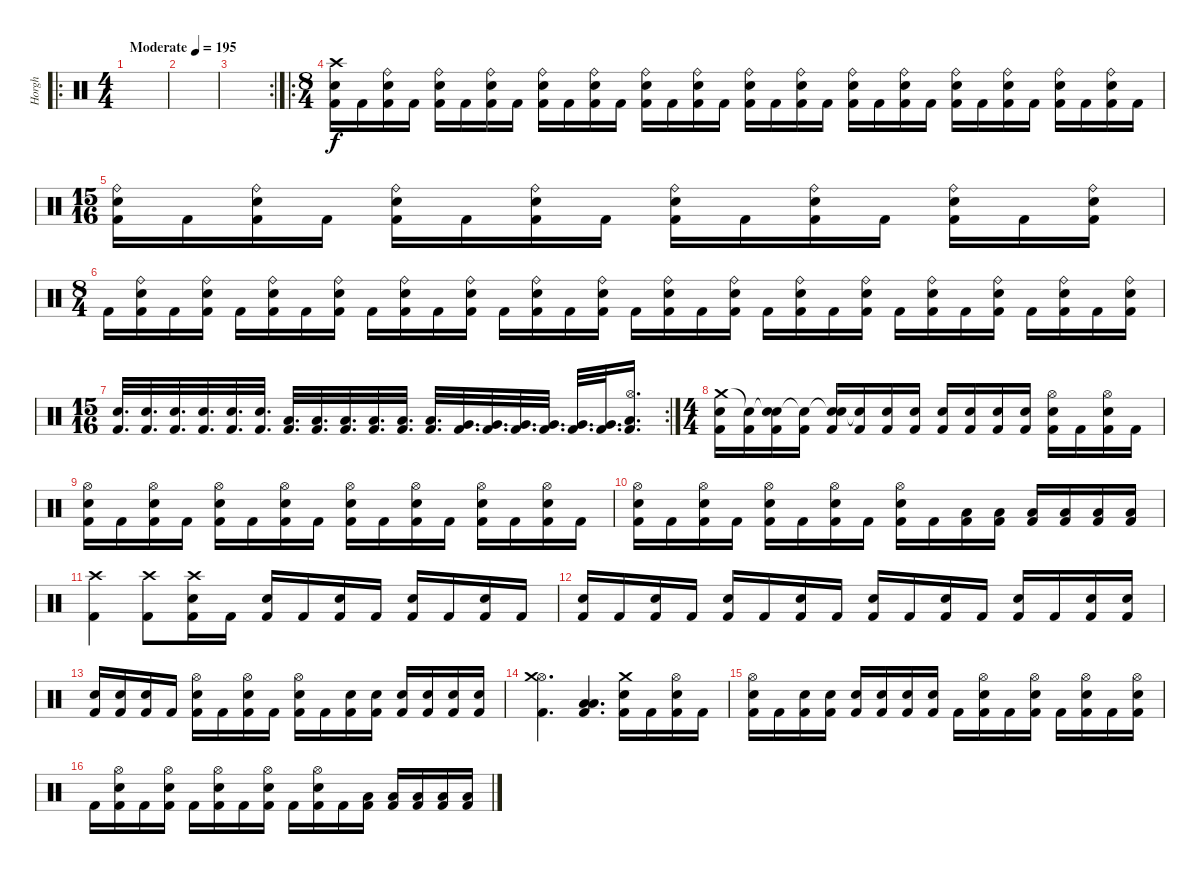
\track ("Horgh" "Horgh") {instrument percussion}
\staff {score}
\articulation defaults
\ro
\ts (4 4)
\tempo (195 "Moderate")
\clef neutral
\ks c
|
|
\rc 2
|
\ro
\ts (8 4)
("Crash high (hit)" "Electric Snare (hit)" "Kick (hit) 2").16 "Kick (hit) 2".16 ("Ride (bell)" "Electric Snare (hit)" "Kick (hit) 2").16 "Kick (hit) 2".16 ("Ride (bell)" "Electric Snare (hit)" "Kick (hit) 2").16 "Kick (hit) 2".16 ("Ride (bell)" "Electric Snare (hit)" "Kick (hit) 2").16 "Kick (hit) 2".16 ("Ride (bell)" "Electric Snare (hit)" "Kick (hit) 2").16 "Kick (hit) 2".16 ("Ride (bell)" "Electric Snare (hit)" "Kick (hit) 2").16 "Kick (hit) 2".16 ("Ride (bell)" "Electric Snare (hit)" "Kick (hit) 2").16 "Kick (hit) 2".16 ("Ride (bell)" "Electric Snare (hit)" "Kick (hit) 2").16 "Kick (hit) 2".16 ("Ride (bell)" "Electric Snare (hit)" "Kick (hit) 2").16 "Kick (hit) 2".16 ("Ride (bell)" "Electric Snare (hit)" "Kick (hit) 2").16 "Kick (hit) 2".16 ("Ride (bell)" "Electric Snare (hit)" "Kick (hit) 2").16 "Kick (hit) 2".16 ("Ride (bell)" "Electric Snare (hit)" "Kick (hit) 2").16 "Kick (hit) 2".16 ("Ride (bell)" "Electric Snare (hit)" "Kick (hit) 2").16 "Kick (hit) 2".16 ("Ride (bell)" "Electric Snare (hit)" "Kick (hit) 2").16 "Kick (hit) 2".16 ("Ride (bell)" "Electric Snare (hit)" "Kick (hit) 2").16 "Kick (hit) 2".16 ("Ride (bell)" "Electric Snare (hit)" "Kick (hit) 2").16 "Kick (hit) 2".16 |
\ts (15 16)
("Ride (bell)" "Electric Snare (hit)" "Kick (hit) 2").16 "Kick (hit) 2".16 ("Ride (bell)" "Electric Snare (hit)" "Kick (hit) 2").16 "Kick (hit) 2".16 ("Ride (bell)" "Electric Snare (hit)" "Kick (hit) 2").16 "Kick (hit) 2".16 ("Ride (bell)" "Electric Snare (hit)" "Kick (hit) 2").16 "Kick (hit) 2".16 ("Ride (bell)" "Electric Snare (hit)" "Kick (hit) 2").16 "Kick (hit) 2".16 ("Ride (bell)" "Electric Snare (hit)" "Kick (hit) 2").16 "Kick (hit) 2".16 ("Ride (bell)" "Electric Snare (hit)" "Kick (hit) 2").16 "Kick (hit) 2".16 ("Ride (bell)" "Electric Snare (hit)" "Kick (hit) 2").16 |
\ts (8 4)
"Kick (hit) 2".16 ("Ride (bell)" "Electric Snare (hit)" "Kick (hit) 2").16 "Kick (hit) 2".16 ("Ride (bell)" "Electric Snare (hit)" "Kick (hit) 2").16 "Kick (hit) 2".16 ("Ride (bell)" "Electric Snare (hit)" "Kick (hit) 2").16 "Kick (hit) 2".16 ("Ride (bell)" "Electric Snare (hit)" "Kick (hit) 2").16 "Kick (hit) 2".16 ("Ride (bell)" "Electric Snare (hit)" "Kick (hit) 2").16 "Kick (hit) 2".16 ("Ride (bell)" "Electric Snare (hit)" "Kick (hit) 2").16 "Kick (hit) 2".16 ("Ride (bell)" "Electric Snare (hit)" "Kick (hit) 2").16 "Kick (hit) 2".16 ("Ride (bell)" "Electric Snare (hit)" "Kick (hit) 2").16 "Kick (hit) 2".16 ("Ride (bell)" "Electric Snare (hit)" "Kick (hit) 2").16 "Kick (hit) 2".16 ("Ride (bell)" "Electric Snare (hit)" "Kick (hit) 2").16 "Kick (hit) 2".16 ("Ride (bell)" "Electric Snare (hit)" "Kick (hit) 2").16 "Kick (hit) 2".16 ("Ride (bell)" "Electric Snare (hit)" "Kick (hit) 2").16 "Kick (hit) 2".16 ("Ride (bell)" "Electric Snare (hit)" "Kick (hit) 2").16 "Kick (hit) 2".16 ("Ride (bell)" "Electric Snare (hit)" "Kick (hit) 2").16 "Kick (hit) 2".16 ("Ride (bell)" "Electric Snare (hit)" "Kick (hit) 2").16 "Kick (hit) 2".16 ("Ride (bell)" "Electric Snare (hit)" "Kick (hit) 2").16 |
\rc 2
\ts (15 16)
("Electric Snare (hit)" "Kick (hit) 2").32{d} ("Electric Snare (hit)" "Kick (hit) 2").32{d} ("Electric Snare (hit)" "Kick (hit) 2").32{d} ("Electric Snare (hit)" "Kick (hit) 2").32{d} ("Electric Snare (hit)" "Kick (hit) 2").32{d} ("Electric Snare (hit)" "Kick (hit) 2").32{d} ("Low Floor Tom (hit)" "Kick (hit) 2").32{d} ("Low Floor Tom (hit)" "Kick (hit) 2").32{d} ("Low Floor Tom (hit)" "Kick (hit) 2").32{d} ("Low Floor Tom (hit)" "Kick (hit) 2").32{d} ("Low Floor Tom (hit)" "Kick (hit) 2").32{d} ("Low Floor Tom (hit)" "Kick (hit) 2").32{d} ("Very Low Tom (hit)" "Kick (hit) 2").32{d} ("Very Low Tom (hit)" "Kick (hit) 2").32{d} ("Very Low Tom (hit)" "Kick (hit) 2").32{d} ("Very Low Tom (hit)" "Kick (hit) 2").32{d} ("Very Low Tom (hit)" "Kick (hit) 2").32{d} ("Very Low Tom (hit)" "Kick (hit) 2").32{d} ("Hi-Hat (open)" "Low Tom (hit)" "Kick (hit) 2").16{d} |
\ts (4 4)
("Crash medium (hit)" "Electric Snare (hit)" "Kick (hit) 2").16 ("Snare (hit)"{t} "Kick (hit) 2").16 ("Snare (hit)"{t} "Electric Snare (hit)" "Kick (hit) 2").16 ("Snare (hit)"{t} "Kick (hit) 2").16 ("Snare (hit)"{t} "Electric Snare (hit)" "Kick (hit) 2").16 ("Snare (hit)"{t} "Kick (hit) 2").16 ("Electric Snare (hit)" "Kick (hit) 2").16 ("Electric Snare (hit)" "Kick (hit) 2").16 ("Electric Snare (hit)" "Kick (hit) 2").16 ("Electric Snare (hit)" "Kick (hit) 2").16 ("Electric Snare (hit)" "Kick (hit) 2").16 ("Electric Snare (hit)" "Kick (hit) 2").16 ("Hi-Hat (open)" "Electric Snare (hit)" "Kick (hit) 2").16 "Kick (hit) 2".16 ("Hi-Hat (open)" "Electric Snare (hit)" "Kick (hit) 2").16 "Kick (hit) 2".16 |
("Hi-Hat (open)" "Electric Snare (hit)" "Kick (hit) 2").16 "Kick (hit) 2".16 ("Hi-Hat (open)" "Electric Snare (hit)" "Kick (hit) 2").16 "Kick (hit) 2".16 ("Hi-Hat (open)" "Electric Snare (hit)" "Kick (hit) 2").16 "Kick (hit) 2".16 ("Hi-Hat (open)" "Electric Snare (hit)" "Kick (hit) 2").16 "Kick (hit) 2".16 ("Hi-Hat (open)" "Electric Snare (hit)" "Kick (hit) 2").16 "Kick (hit) 2".16 ("Hi-Hat (open)" "Electric Snare (hit)" "Kick (hit) 2").16 "Kick (hit) 2".16 ("Hi-Hat (open)" "Electric Snare (hit)" "Kick (hit) 2").16 "Kick (hit) 2".16 ("Hi-Hat (open)" "Electric Snare (hit)" "Kick (hit) 2").16 "Kick (hit) 2".16 |
("Hi-Hat (open)" "Electric Snare (hit)" "Kick (hit) 2").16 "Kick (hit) 2".16 ("Hi-Hat (open)" "Electric Snare (hit)" "Kick (hit) 2").16 "Kick (hit) 2".16 ("Hi-Hat (open)" "Electric Snare (hit)" "Kick (hit) 2").16 "Kick (hit) 2".16 ("Hi-Hat (open)" "Electric Snare (hit)" "Kick (hit) 2").16 "Kick (hit) 2".16 ("Hi-Hat (open)" "Electric Snare (hit)" "Kick (hit) 2").16 "Kick (hit) 2".16 ("Low Floor Tom (hit)" "Kick (hit) 2").16 ("Low Floor Tom (hit)" "Kick (hit) 2").16 ("Low Floor Tom (hit)" "Kick (hit) 2").16 ("Low Floor Tom (hit)" "Kick (hit) 2").16 ("Low Floor Tom (hit)" "Kick (hit) 2").16 ("Low Floor Tom (hit)" "Kick (hit) 2").16 |
("Crash high (hit)" "Kick (hit) 2").4 ("Crash high (hit)" "Kick (hit) 2").8 ("Crash high (hit)" "Electric Snare (hit)" "Kick (hit) 2").16 "Kick (hit) 2".16 ("Electric Snare (hit)" "Kick (hit) 2").16 "Kick (hit) 2".16 ("Electric Snare (hit)" "Kick (hit) 2").16 "Kick (hit) 2".16 ("Electric Snare (hit)" "Kick (hit) 2").16 "Kick (hit) 2".16 ("Electric Snare (hit)" "Kick (hit) 2").16 "Kick (hit) 2".16 |
("Electric Snare (hit)" "Kick (hit) 2").16 "Kick (hit) 2".16 ("Electric Snare (hit)" "Kick (hit) 2").16 "Kick (hit) 2".16 ("Electric Snare (hit)" "Kick (hit) 2").16 "Kick (hit) 2".16 ("Electric Snare (hit)" "Kick (hit) 2").16 "Kick (hit) 2".16 ("Electric Snare (hit)" "Kick (hit) 2").16 "Kick (hit) 2".16 ("Electric Snare (hit)" "Kick (hit) 2").16 "Kick (hit) 2".16 ("Electric Snare (hit)" "Kick (hit) 2").16 "Kick (hit) 2".16 ("Electric Snare (hit)" "Kick (hit) 2").16 ("Electric Snare (hit)" "Kick (hit) 2").16 |
("Electric Snare (hit)" "Kick (hit) 2").16 ("Electric Snare (hit)" "Kick (hit) 2").16 ("Electric Snare (hit)" "Kick (hit) 2").16 "Kick (hit) 2".16 ("Hi-Hat (open)" "Electric Snare (hit)" "Kick (hit) 2").16 "Kick (hit) 2".16 ("Hi-Hat (open)" "Electric Snare (hit)" "Kick (hit) 2").16 "Kick (hit) 2".16 ("Hi-Hat (open)" "Electric Snare (hit)" "Kick (hit) 2").16 "Kick (hit) 2".16 ("Electric Snare (hit)" "Kick (hit) 2").16 ("Electric Snare (hit)" "Kick (hit) 2").16 ("Electric Snare (hit)" "Kick (hit) 2").16 ("Electric Snare (hit)" "Kick (hit) 2").16 ("Electric Snare (hit)" "Kick (hit) 2").16 ("Electric Snare (hit)" "Kick (hit) 2").16 |
("Hi-Hat (open)" "Crash medium (hit)" "Kick (hit) 2").4{d} ("Low Floor Tom (hit)" "Low Floor Tom (hit)" "Kick (hit) 2").4{d} ("Crash medium (hit)" "Electric Snare (hit)" "Kick (hit) 2").16 "Kick (hit) 2".16 ("Hi-Hat (open)" "Electric Snare (hit)" "Kick (hit) 2").16 "Kick (hit) 2".16 |
("Hi-Hat (open)" "Electric Snare (hit)" "Kick (hit) 2").16 "Kick (hit) 2".16 ("Electric Snare (hit)" "Kick (hit) 2").16 ("Electric Snare (hit)" "Kick (hit) 2").16 ("Electric Snare (hit)" "Kick (hit) 2").16 ("Electric Snare (hit)" "Kick (hit) 2").16 ("Electric Snare (hit)" "Kick (hit) 2").16 ("Electric Snare (hit)" "Kick (hit) 2").16 "Kick (hit) 2".16 ("Hi-Hat (open)" "Electric Snare (hit)" "Kick (hit) 2").16 "Kick (hit) 2".16 ("Hi-Hat (open)" "Electric Snare (hit)" "Kick (hit) 2").16 "Kick (hit) 2".16 ("Hi-Hat (open)" "Electric Snare (hit)" "Kick (hit) 2").16 "Kick (hit) 2".16 ("Hi-Hat (open)" "Electric Snare (hit)" "Kick (hit) 2").16 |
"Kick (hit) 2".16 ("Hi-Hat (open)" "Electric Snare (hit)" "Kick (hit) 2").16 "Kick (hit) 2".16 ("Hi-Hat (open)" "Electric Snare (hit)" "Kick (hit) 2").16 "Kick (hit) 2".16 ("Hi-Hat (open)" "Electric Snare (hit)" "Kick (hit) 2").16 "Kick (hit) 2".16 ("Hi-Hat (open)" "Electric Snare (hit)" "Kick (hit) 2").16 "Kick (hit) 2".16 ("Hi-Hat (open)" "Electric Snare (hit)" "Kick (hit) 2").16 "Kick (hit) 2".16 ("Low Floor Tom (hit)" "Kick (hit) 2").16 ("Low Floor Tom (hit)" "Kick (hit) 2").16 ("Low Floor Tom (hit)" "Kick (hit) 2").16 ("Low Floor Tom (hit)" "Kick (hit) 2").16 ("Low Floor Tom (hit)" "Kick (hit) 2").16
